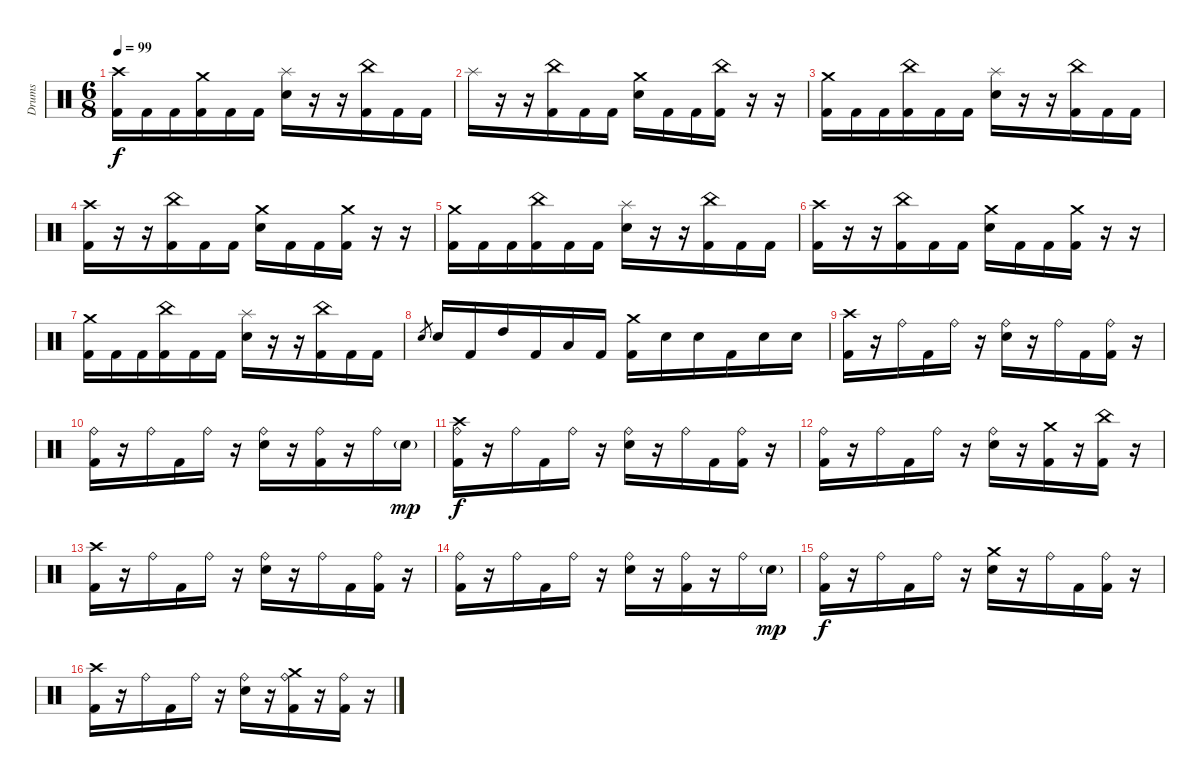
\track ("Drums" "Drums") {instrument percussion}
\staff {score}
\articulation defaults
\ts (6 8)
\tempo 99
\clef neutral
\ks c
("Crash high (hit)" "Kick (hit) 2").16{dy f} "Kick (hit) 2".16 "Kick (hit) 2".16 ("Crash medium (hit)" "Kick (hit) 2").16 "Kick (hit) 2".16 "Kick (hit) 2".16 ("Splash (hit)" "Electric Snare (hit)").16 r.16 r.16 ("China (hit)" "Kick (hit) 2").16 "Kick (hit) 2".16 "Kick (hit) 2".16 |
"Splash (hit)".16 r.16 r.16 ("China (hit)" "Kick (hit) 2").16 "Kick (hit) 2".16 "Kick (hit) 2".16 ("Crash medium (hit)" "Electric Snare (hit)").16 "Kick (hit) 2".16 "Kick (hit) 2".16 ("China (hit)" "Kick (hit) 2").16 r.16 r.16 |
("Crash medium (hit)" "Kick (hit) 2").16 "Kick (hit) 2".16 "Kick (hit) 2".16 ("China (hit)" "Kick (hit) 2").16 "Kick (hit) 2".16 "Kick (hit) 2".16 ("Splash (hit)" "Electric Snare (hit)").16 r.16 r.16 ("China (hit)" "Kick (hit) 2").16 "Kick (hit) 2".16 "Kick (hit) 2".16 |
("Crash high (hit)" "Kick (hit) 2").16 r.16 r.16 ("China (hit)" "Kick (hit) 2").16 "Kick (hit) 2".16 "Kick (hit) 2".16 ("Crash medium (hit)" "Electric Snare (hit)").16 "Kick (hit) 2".16 "Kick (hit) 2".16 ("Crash medium (hit)" "Kick (hit) 2").16 r.16 r.16 |
("Crash medium (hit)" "Kick (hit) 2").16 "Kick (hit) 2".16 "Kick (hit) 2".16 ("China (hit)" "Kick (hit) 2").16 "Kick (hit) 2".16 "Kick (hit) 2".16 ("Splash (hit)" "Electric Snare (hit)").16 r.16 r.16 ("China (hit)" "Kick (hit) 2").16 "Kick (hit) 2".16 "Kick (hit) 2".16 |
("Crash high (hit)" "Kick (hit) 2").16 r.16 r.16 ("China (hit)" "Kick (hit) 2").16 "Kick (hit) 2".16 "Kick (hit) 2".16 ("Crash medium (hit)" "Electric Snare (hit)").16 "Kick (hit) 2".16 "Kick (hit) 2".16 ("Crash medium (hit)" "Kick (hit) 2").16 r.16 r.16 |
("Crash medium (hit)" "Kick (hit) 2").16 "Kick (hit) 2".16 "Kick (hit) 2".16 ("China (hit)" "Kick (hit) 2").16 "Kick (hit) 2".16 "Kick (hit) 2".16 ("Splash (hit)" "Electric Snare (hit)").16 r.16 r.16 ("China (hit)" "Kick (hit) 2").16 "Kick (hit) 2".16 "Kick (hit) 2".16 |
"Electric Snare (hit)".8{gr} "Electric Snare (hit)".16 "Kick (hit) 2".16 "High Tom (hit)".16 "Kick (hit) 2".16 "Low Tom (hit)".16 "Kick (hit) 2".16 ("Crash medium (hit)" "Kick (hit) 2").16 "Electric Snare (hit)".16 "Electric Snare (hit)".16 "Kick (hit) 2".16 "Electric Snare (hit)".16 "Electric Snare (hit)".16 |
("Crash high (hit)" "Kick (hit) 2").16 r.16 "Ride (bell)".16 "Kick (hit) 2".16 "Ride (bell)".16 r.16 ("Ride (bell)" "Electric Snare (hit)").16 r.16 "Ride (bell)".16 "Kick (hit) 2".16 ("Ride (bell)" "Kick (hit) 2").16 r.16 |
("Ride (bell)" "Kick (hit) 2").16 r.16 "Ride (bell)".16 "Kick (hit) 2".16 "Ride (bell)".16 r.16 ("Ride (bell)" "Electric Snare (hit)").16 r.16 ("Ride (bell)" "Kick (hit) 2").16 r.16 "Ride (bell)".16 "Electric Snare (hit)"{g}.16{dy mp} |
("Crash high (hit)" "Ride (bell)" "Kick (hit) 2").16{dy f} r.16 "Ride (bell)".16 "Kick (hit) 2".16 "Ride (bell)".16 r.16 ("Ride (bell)" "Electric Snare (hit)").16 r.16 "Ride (bell)".16 "Kick (hit) 2".16 ("Ride (bell)" "Kick (hit) 2").16 r.16 |
("Ride (bell)" "Kick (hit) 2").16 r.16 "Ride (bell)".16 "Kick (hit) 2".16 "Ride (bell)".16 r.16 ("Ride (bell)" "Electric Snare (hit)").16 r.16 ("Crash medium (hit)" "Kick (hit) 2").16 r.16 ("China (hit)" "Kick (hit) 2").16 r.16 |
("Crash high (hit)" "Kick (hit) 2").16 r.16 "Ride (bell)".16 "Kick (hit) 2".16 "Ride (bell)".16 r.16 ("Ride (bell)" "Electric Snare (hit)").16 r.16 "Ride (bell)".16 "Kick (hit) 2".16 ("Ride (bell)" "Kick (hit) 2").16 r.16 |
("Ride (bell)" "Kick (hit) 2").16 r.16 "Ride (bell)".16 "Kick (hit) 2".16 "Ride (bell)".16 r.16 ("Ride (bell)" "Electric Snare (hit)").16 r.16 ("Ride (bell)" "Kick (hit) 2").16 r.16 "Ride (bell)".16 "Electric Snare (hit)"{g}.16{dy mp} |
("Ride (bell)" "Kick (hit) 2").16{dy f} r.16 "Ride (bell)".16 "Kick (hit) 2".16 "Ride (bell)".16 r.16 ("Crash medium (hit)" "Electric Snare (hit)").16 r.16 "Ride (bell)".16 "Kick (hit) 2".16 ("Ride (bell)" "Kick (hit) 2").16 r.16 |
("Crash high (hit)" "Kick (hit) 2").16 r.16 "Ride (bell)".16 "Kick (hit) 2".16 "Ride (bell)".16 r.16 ("Ride (bell)" "Electric Snare (hit)").16 r.16 ("Ride (bell)" "Crash medium (hit)" "Kick (hit) 2").16 r.16 ("Ride (bell)" "Kick (hit) 2").16 r.16
